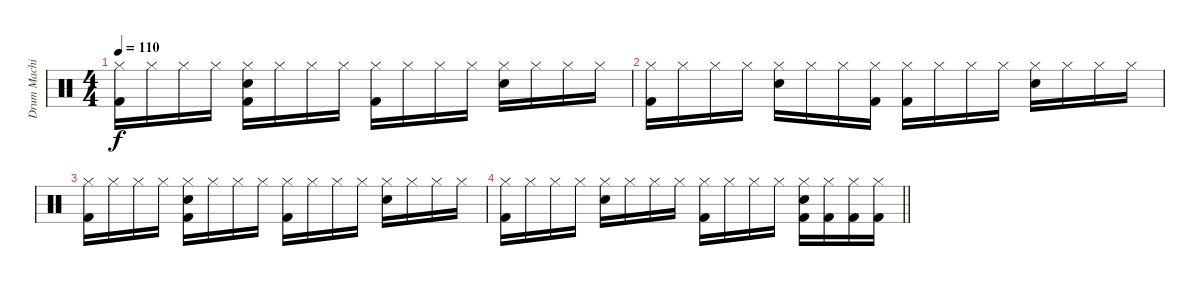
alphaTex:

\track ("Drum Machine" "Drum Machi") {instrument percussion}
\staff {score}
\articulation defaults
\ts (4 4)
\tempo 110
\clef neutral
\ks c
("Hi-Hat (closed)" "Kick (hit) 2").16{dy f volume 10} "Hi-Hat (closed)".16 "Hi-Hat (closed)".16 "Hi-Hat (closed)".16 ("Hi-Hat (closed)" "Hand Clap (hit)" "Kick (hit) 2").16 "Hi-Hat (closed)".16 "Hi-Hat (closed)".16 "Hi-Hat (closed)".16 ("Hi-Hat (closed)" "Kick (hit) 2").16 "Hi-Hat (closed)".16 "Hi-Hat (closed)".16 "Hi-Hat (closed)".16 ("Hi-Hat (closed)" "Hand Clap (hit)").16 "Hi-Hat (closed)".16 "Hi-Hat (closed)".16 "Hi-Hat (closed)".16 |
("Hi-Hat (closed)" "Kick (hit) 2").16 "Hi-Hat (closed)".16 "Hi-Hat (closed)".16 "Hi-Hat (closed)".16 ("Hi-Hat (closed)" "Hand Clap (hit)").16 "Hi-Hat (closed)".16 "Hi-Hat (closed)".16 ("Hi-Hat (closed)" "Kick (hit) 2").16 ("Hi-Hat (closed)" "Kick (hit) 2").16 "Hi-Hat (closed)".16 "Hi-Hat (closed)".16 "Hi-Hat (closed)".16 ("Hi-Hat (closed)" "Hand Clap (hit)").16 "Hi-Hat (closed)".16 "Hi-Hat (closed)".16 "Hi-Hat (closed)".16 |
("Hi-Hat (closed)" "Kick (hit) 2").16 "Hi-Hat (closed)".16 "Hi-Hat (closed)".16 "Hi-Hat (closed)".16 ("Hi-Hat (closed)" "Hand Clap (hit)" "Kick (hit) 2").16 "Hi-Hat (closed)".16 "Hi-Hat (closed)".16 "Hi-Hat (closed)".16 ("Hi-Hat (closed)" "Kick (hit) 2").16 "Hi-Hat (closed)".16 "Hi-Hat (closed)".16 "Hi-Hat (closed)".16 ("Hi-Hat (closed)" "Hand Clap (hit)").16 "Hi-Hat (closed)".16 "Hi-Hat (closed)".16 "Hi-Hat (closed)".16 |
\barLineRight lightlight
("Hi-Hat (closed)" "Kick (hit) 2").16 "Hi-Hat (closed)".16 "Hi-Hat (closed)".16 "Hi-Hat (closed)".16 ("Hi-Hat (closed)" "Hand Clap (hit)").16 "Hi-Hat (closed)".16 "Hi-Hat (closed)".16 "Hi-Hat (closed)".16 ("Hi-Hat (closed)" "Kick (hit) 2").16 "Hi-Hat (closed)".16 "Hi-Hat (closed)".16 "Hi-Hat (closed)".16 ("Hi-Hat (closed)" "Hand Clap (hit)" "Kick (hit) 2").16 ("Hi-Hat (closed)" "Kick (hit) 2").16 ("Hi-Hat (closed)" "Kick (hit) 2").16 ("Hi-Hat (closed)" "Kick (hit) 2").16
